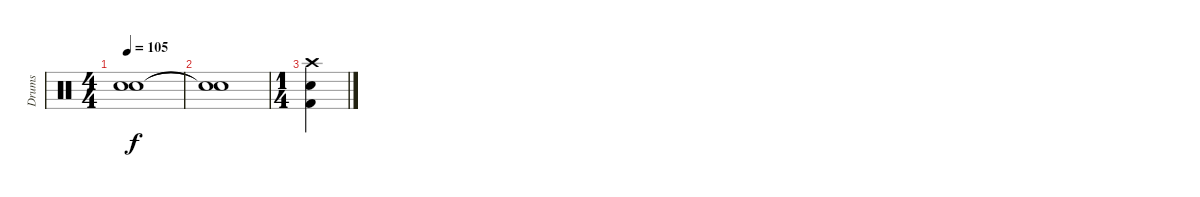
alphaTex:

\track ("Drums" "Drums") {instrument percussion}
\staff {score}
\articulation defaults
\ts (4 4)
\tempo 105
\clef neutral
\ks c
("Snare (hit)"{t} "Snare (hit)"{t}).1{dy f} |
("Snare (hit)"{t} "Snare (hit)"{t}).1 |
\ts (1 4)
("Crash high (hit)" "Electric Snare (hit)" "Kick (hit) 2").4
